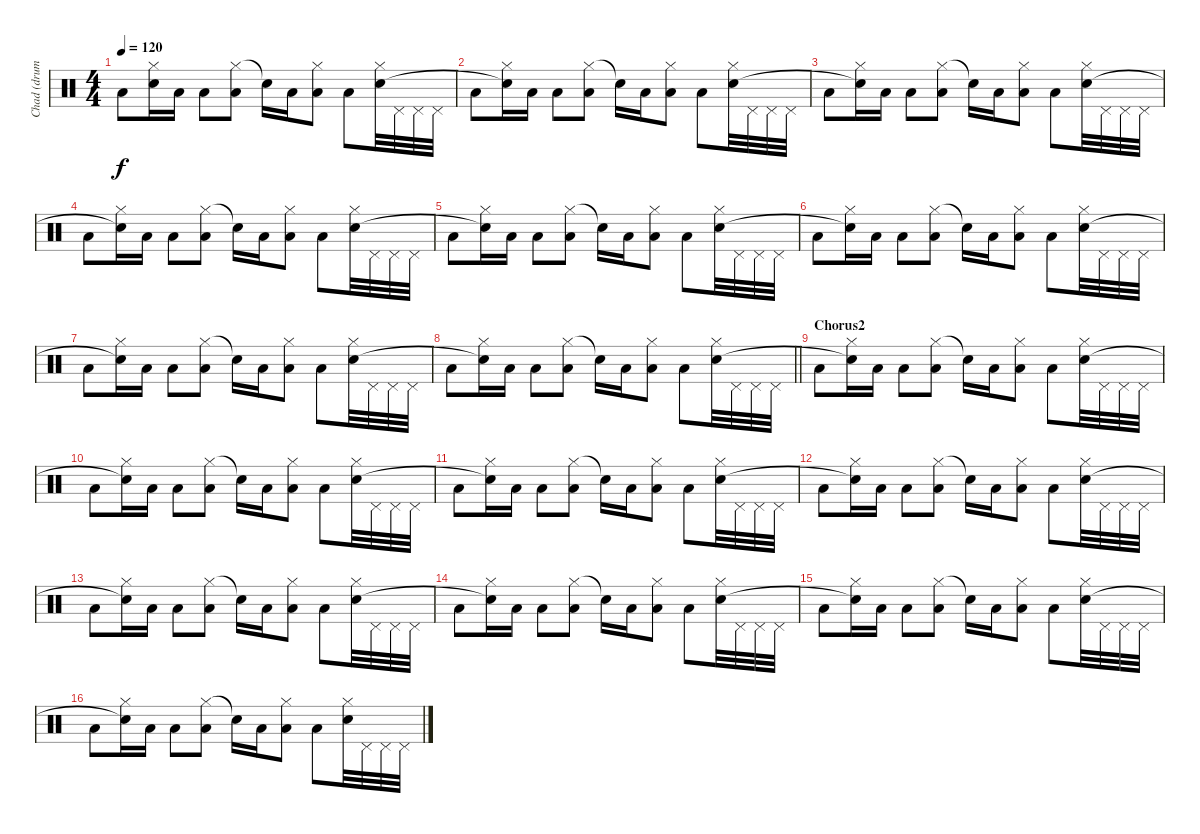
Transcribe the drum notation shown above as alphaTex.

\track ("Chad (drums)" "Chad (drum") {instrument percussion}
\staff {score}
\articulation defaults
\ts (4 4)
\tempo 120
\clef neutral
\ks c "Low Tom (hit)".8{dy f}
("Hi-Hat (closed)" "Snare (hit)"{t}).16 "Low Tom (hit)".16 "Low Floor Tom (hit)".8 ("Hi-Hat (closed)" "Low Tom (hit)").8 "Snare (hit)"{t}.16 "Low Tom (hit)".16 ("Hi-Hat (closed)" "Low Floor Tom (hit)").8 "Low Tom (hit)".8 ("Hi-Hat (closed)" "Snare (hit) 2").32 "Pedal Hi-Hat (hit)".32 "Pedal Hi-Hat (hit)".32 "Pedal Hi-Hat (hit)".32 |
"Low Tom (hit)".8 ("Hi-Hat (closed)" "Snare (hit)"{t}).16 "Low Tom (hit)".16 "Low Floor Tom (hit)".8 ("Hi-Hat (closed)" "Low Tom (hit)").8 "Snare (hit)"{t}.16 "Low Tom (hit)".16 ("Hi-Hat (closed)" "Low Floor Tom (hit)").8 "Low Tom (hit)".8 ("Hi-Hat (closed)" "Snare (hit) 2").32 "Pedal Hi-Hat (hit)".32 "Pedal Hi-Hat (hit)".32 "Pedal Hi-Hat (hit)".32 |
"Low Tom (hit)".8 ("Hi-Hat (closed)" "Snare (hit)"{t}).16 "Low Tom (hit)".16 "Low Floor Tom (hit)".8 ("Hi-Hat (closed)" "Low Tom (hit)").8 "Snare (hit)"{t}.16 "Low Tom (hit)".16 ("Hi-Hat (closed)" "Low Floor Tom (hit)").8 "Low Tom (hit)".8 ("Hi-Hat (closed)" "Snare (hit) 2").32 "Pedal Hi-Hat (hit)".32 "Pedal Hi-Hat (hit)".32 "Pedal Hi-Hat (hit)".32 |
"Low Tom (hit)".8 ("Hi-Hat (closed)" "Snare (hit)"{t}).16 "Low Tom (hit)".16 "Low Floor Tom (hit)".8 ("Hi-Hat (closed)" "Low Tom (hit)").8 "Snare (hit)"{t}.16 "Low Tom (hit)".16 ("Hi-Hat (closed)" "Low Floor Tom (hit)").8 "Low Tom (hit)".8 ("Hi-Hat (closed)" "Snare (hit) 2").32 "Pedal Hi-Hat (hit)".32 "Pedal Hi-Hat (hit)".32 "Pedal Hi-Hat (hit)".32 |
"Low Tom (hit)".8 ("Hi-Hat (closed)" "Snare (hit)"{t}).16 "Low Tom (hit)".16 "Low Floor Tom (hit)".8 ("Hi-Hat (closed)" "Low Tom (hit)").8 "Snare (hit)"{t}.16 "Low Tom (hit)".16 ("Hi-Hat (closed)" "Low Floor Tom (hit)").8 "Low Tom (hit)".8 ("Hi-Hat (closed)" "Snare (hit) 2").32 "Pedal Hi-Hat (hit)".32 "Pedal Hi-Hat (hit)".32 "Pedal Hi-Hat (hit)".32 |
"Low Tom (hit)".8 ("Hi-Hat (closed)" "Snare (hit)"{t}).16 "Low Tom (hit)".16 "Low Floor Tom (hit)".8 ("Hi-Hat (closed)" "Low Tom (hit)").8 "Snare (hit)"{t}.16 "Low Tom (hit)".16 ("Hi-Hat (closed)" "Low Floor Tom (hit)").8 "Low Tom (hit)".8 ("Hi-Hat (closed)" "Snare (hit) 2").32 "Pedal Hi-Hat (hit)".32 "Pedal Hi-Hat (hit)".32 "Pedal Hi-Hat (hit)".32 |
"Low Tom (hit)".8 ("Hi-Hat (closed)" "Snare (hit)"{t}).16 "Low Tom (hit)".16 "Low Floor Tom (hit)".8 ("Hi-Hat (closed)" "Low Tom (hit)").8 "Snare (hit)"{t}.16 "Low Tom (hit)".16 ("Hi-Hat (closed)" "Low Floor Tom (hit)").8 "Low Tom (hit)".8 ("Hi-Hat (closed)" "Snare (hit) 2").32 "Pedal Hi-Hat (hit)".32 "Pedal Hi-Hat (hit)".32 "Pedal Hi-Hat (hit)".32 |
\barLineRight lightlight "Low Tom (hit)".8
("Hi-Hat (closed)" "Snare (hit)"{t}).16 "Low Tom (hit)".16 "Low Floor Tom (hit)".8 ("Hi-Hat (closed)" "Low Tom (hit)").8 "Snare (hit)"{t}.16 "Low Tom (hit)".16 ("Hi-Hat (closed)" "Low Floor Tom (hit)").8 "Low Tom (hit)".8 ("Hi-Hat (closed)" "Snare (hit) 2").32 "Pedal Hi-Hat (hit)".32 "Pedal Hi-Hat (hit)".32 "Pedal Hi-Hat (hit)".32 |
\section ("" "Chorus2")
"Low Tom (hit)".8 ("Hi-Hat (closed)" "Snare (hit)"{t}).16 "Low Tom (hit)".16 "Low Floor Tom (hit)".8 ("Hi-Hat (closed)" "Low Tom (hit)").8 "Snare (hit)"{t}.16 "Low Tom (hit)".16 ("Hi-Hat (closed)" "Low Floor Tom (hit)").8 "Low Tom (hit)".8 ("Hi-Hat (closed)" "Snare (hit) 2").32 "Pedal Hi-Hat (hit)".32 "Pedal Hi-Hat (hit)".32 "Pedal Hi-Hat (hit)".32 |
"Low Tom (hit)".8 ("Hi-Hat (closed)" "Snare (hit)"{t}).16 "Low Tom (hit)".16 "Low Floor Tom (hit)".8 ("Hi-Hat (closed)" "Low Tom (hit)").8 "Snare (hit)"{t}.16 "Low Tom (hit)".16 ("Hi-Hat (closed)" "Low Floor Tom (hit)").8 "Low Tom (hit)".8 ("Hi-Hat (closed)" "Snare (hit) 2").32 "Pedal Hi-Hat (hit)".32 "Pedal Hi-Hat (hit)".32 "Pedal Hi-Hat (hit)".32 |
"Low Tom (hit)".8 ("Hi-Hat (closed)" "Snare (hit)"{t}).16 "Low Tom (hit)".16 "Low Floor Tom (hit)".8 ("Hi-Hat (closed)" "Low Tom (hit)").8 "Snare (hit)"{t}.16 "Low Tom (hit)".16 ("Hi-Hat (closed)" "Low Floor Tom (hit)").8 "Low Tom (hit)".8 ("Hi-Hat (closed)" "Snare (hit) 2").32 "Pedal Hi-Hat (hit)".32 "Pedal Hi-Hat (hit)".32 "Pedal Hi-Hat (hit)".32 |
"Low Tom (hit)".8 ("Hi-Hat (closed)" "Snare (hit)"{t}).16 "Low Tom (hit)".16 "Low Floor Tom (hit)".8 ("Hi-Hat (closed)" "Low Tom (hit)").8 "Snare (hit)"{t}.16 "Low Tom (hit)".16 ("Hi-Hat (closed)" "Low Floor Tom (hit)").8 "Low Tom (hit)".8 ("Hi-Hat (closed)" "Snare (hit) 2").32 "Pedal Hi-Hat (hit)".32 "Pedal Hi-Hat (hit)".32 "Pedal Hi-Hat (hit)".32 |
"Low Tom (hit)".8 ("Hi-Hat (closed)" "Snare (hit)"{t}).16 "Low Tom (hit)".16 "Low Floor Tom (hit)".8 ("Hi-Hat (closed)" "Low Tom (hit)").8 "Snare (hit)"{t}.16 "Low Tom (hit)".16 ("Hi-Hat (closed)" "Low Floor Tom (hit)").8 "Low Tom (hit)".8 ("Hi-Hat (closed)" "Snare (hit) 2").32 "Pedal Hi-Hat (hit)".32 "Pedal Hi-Hat (hit)".32 "Pedal Hi-Hat (hit)".32 |
"Low Tom (hit)".8 ("Hi-Hat (closed)" "Snare (hit)"{t}).16 "Low Tom (hit)".16 "Low Floor Tom (hit)".8 ("Hi-Hat (closed)" "Low Tom (hit)").8 "Snare (hit)"{t}.16 "Low Tom (hit)".16 ("Hi-Hat (closed)" "Low Floor Tom (hit)").8 "Low Tom (hit)".8 ("Hi-Hat (closed)" "Snare (hit) 2").32 "Pedal Hi-Hat (hit)".32 "Pedal Hi-Hat (hit)".32 "Pedal Hi-Hat (hit)".32 |
"Low Tom (hit)".8 ("Hi-Hat (closed)" "Snare (hit)"{t}).16 "Low Tom (hit)".16 "Low Floor Tom (hit)".8 ("Hi-Hat (closed)" "Low Tom (hit)").8 "Snare (hit)"{t}.16 "Low Tom (hit)".16 ("Hi-Hat (closed)" "Low Floor Tom (hit)").8 "Low Tom (hit)".8 ("Hi-Hat (closed)" "Snare (hit) 2").32 "Pedal Hi-Hat (hit)".32 "Pedal Hi-Hat (hit)".32 "Pedal Hi-Hat (hit)".32 |
"Low Tom (hit)".8 ("Hi-Hat (closed)" "Snare (hit)"{t}).16 "Low Tom (hit)".16 "Low Floor Tom (hit)".8 ("Hi-Hat (closed)" "Low Tom (hit)").8 "Snare (hit)"{t}.16 "Low Tom (hit)".16 ("Hi-Hat (closed)" "Low Floor Tom (hit)").8 "Low Tom (hit)".8 ("Hi-Hat (closed)" "Snare (hit) 2").32 "Pedal Hi-Hat (hit)".32 "Pedal Hi-Hat (hit)".32 "Pedal Hi-Hat (hit)".32
